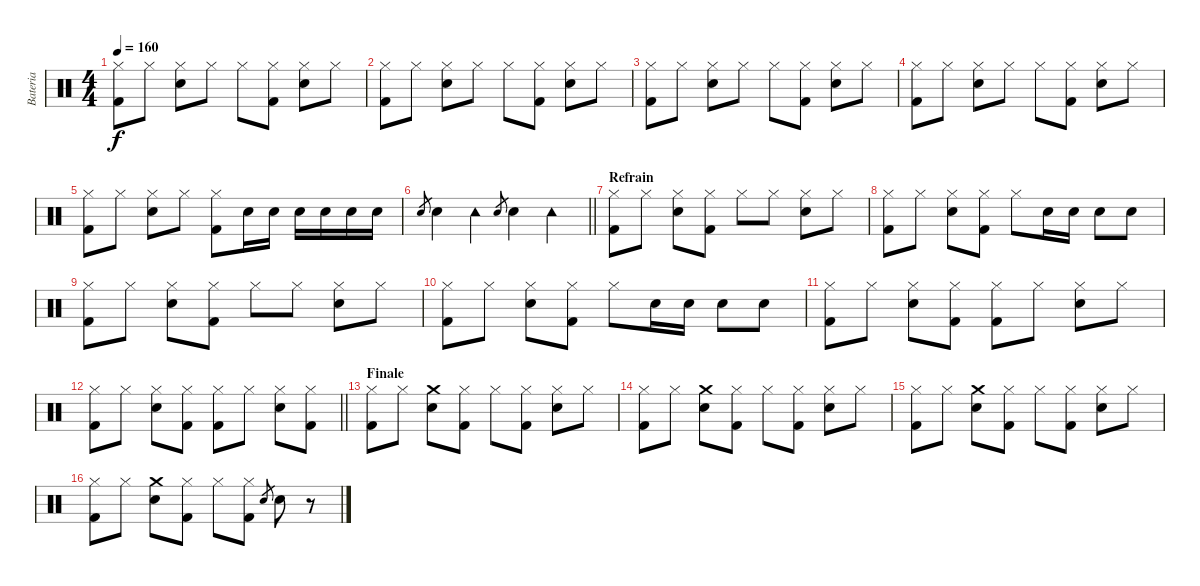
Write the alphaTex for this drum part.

\track ("Bateria" "Bateria") {instrument percussion}
\staff {score}
\articulation defaults
\ts (4 4)
\tempo 160
\clef neutral
\ks c
("Hi-Hat (closed)" "Kick (hit) 2").8{dy f} "Hi-Hat (closed)".8 ("Hi-Hat (closed)" "Electric Snare (hit)").8 "Hi-Hat (closed)".8 "Hi-Hat (closed)".8 ("Hi-Hat (closed)" "Kick (hit) 2").8 ("Hi-Hat (closed)" "Electric Snare (hit)").8 "Hi-Hat (closed)".8 |
("Hi-Hat (closed)" "Kick (hit) 2").8 "Hi-Hat (closed)".8 ("Hi-Hat (closed)" "Electric Snare (hit)").8 "Hi-Hat (closed)".8 "Hi-Hat (closed)".8 ("Hi-Hat (closed)" "Kick (hit) 2").8 ("Hi-Hat (closed)" "Electric Snare (hit)").8 "Hi-Hat (closed)".8 |
("Hi-Hat (closed)" "Kick (hit) 2").8 "Hi-Hat (closed)".8 ("Hi-Hat (closed)" "Electric Snare (hit)").8 "Hi-Hat (closed)".8 "Hi-Hat (closed)".8 ("Hi-Hat (closed)" "Kick (hit) 2").8 ("Hi-Hat (closed)" "Electric Snare (hit)").8 "Hi-Hat (closed)".8 |
("Hi-Hat (closed)" "Kick (hit) 2").8 "Hi-Hat (closed)".8 ("Hi-Hat (closed)" "Electric Snare (hit)").8 "Hi-Hat (closed)".8 "Hi-Hat (closed)".8 ("Hi-Hat (closed)" "Kick (hit) 2").8 ("Hi-Hat (closed)" "Electric Snare (hit)").8 "Hi-Hat (closed)".8 |
("Hi-Hat (closed)" "Kick (hit) 2").8 "Hi-Hat (closed)".8 ("Hi-Hat (closed)" "Electric Snare (hit)").8 "Hi-Hat (closed)".8 ("Hi-Hat (closed)" "Kick (hit) 2").8 "Electric Snare (hit)".16 "Electric Snare (hit)".16 "Electric Snare (hit)".16 "Electric Snare (hit)".16 "Electric Snare (hit)".16 "Electric Snare (hit)".16 |
\barLineRight lightlight "Electric Snare (hit)".8{gr} "Electric Snare (hit)".4 "Tambourine (hit)".4 "Electric Snare (hit)".8{gr} "Electric Snare (hit)".4 "Tambourine (hit)".4
|
\section ("" "Refrain")
("Hi-Hat (closed)" "Kick (hit) 2").8 "Hi-Hat (closed)".8 ("Hi-Hat (closed)" "Electric Snare (hit)").8 ("Hi-Hat (closed)" "Kick (hit) 2").8 "Hi-Hat (closed)".8 "Hi-Hat (closed)".8 ("Hi-Hat (closed)" "Electric Snare (hit)").8 "Hi-Hat (closed)".8 |
("Hi-Hat (closed)" "Kick (hit) 2").8 "Hi-Hat (closed)".8 ("Hi-Hat (closed)" "Electric Snare (hit)").8 ("Hi-Hat (closed)" "Kick (hit) 2").8 "Hi-Hat (closed)".8 "Electric Snare (hit)".16 "Electric Snare (hit)".16 "Electric Snare (hit)".8 "Electric Snare (hit)".8 |
("Hi-Hat (closed)" "Kick (hit) 2").8 "Hi-Hat (closed)".8 ("Hi-Hat (closed)" "Electric Snare (hit)").8 ("Hi-Hat (closed)" "Kick (hit) 2").8 "Hi-Hat (closed)".8 "Hi-Hat (closed)".8 ("Hi-Hat (closed)" "Electric Snare (hit)").8 "Hi-Hat (closed)".8 |
("Hi-Hat (closed)" "Kick (hit) 2").8 "Hi-Hat (closed)".8 ("Hi-Hat (closed)" "Electric Snare (hit)").8 ("Hi-Hat (closed)" "Kick (hit) 2").8 "Hi-Hat (closed)".8 "Electric Snare (hit)".16 "Electric Snare (hit)".16 "Electric Snare (hit)".8 "Electric Snare (hit)".8 |
("Hi-Hat (closed)" "Kick (hit) 2").8 "Hi-Hat (closed)".8 ("Hi-Hat (closed)" "Electric Snare (hit)").8 ("Hi-Hat (closed)" "Kick (hit) 2").8 ("Hi-Hat (closed)" "Kick (hit) 2").8 "Hi-Hat (closed)".8 ("Hi-Hat (closed)" "Electric Snare (hit)").8 "Hi-Hat (closed)".8 |
\barLineRight lightlight
("Hi-Hat (closed)" "Kick (hit) 2").8 "Hi-Hat (closed)".8 ("Hi-Hat (closed)" "Electric Snare (hit)").8 ("Hi-Hat (closed)" "Kick (hit) 2").8 ("Hi-Hat (closed)" "Kick (hit) 2").8 "Hi-Hat (closed)".8 ("Hi-Hat (closed)" "Electric Snare (hit)").8 ("Hi-Hat (closed)" "Kick (hit) 2").8 |
\section ("" "Finale")
("Hi-Hat (closed)" "Kick (hit) 2").8 "Hi-Hat (closed)".8 ("Crash medium (hit)" "Electric Snare (hit)").8 ("Hi-Hat (closed)" "Kick (hit) 2").8 "Hi-Hat (closed)".8 ("Hi-Hat (closed)" "Kick (hit) 2").8 ("Hi-Hat (closed)" "Electric Snare (hit)").8 "Hi-Hat (closed)".8 |
("Hi-Hat (closed)" "Kick (hit) 2").8 "Hi-Hat (closed)".8 ("Crash medium (hit)" "Electric Snare (hit)").8 ("Hi-Hat (closed)" "Kick (hit) 2").8 "Hi-Hat (closed)".8 ("Hi-Hat (closed)" "Kick (hit) 2").8 ("Hi-Hat (closed)" "Electric Snare (hit)").8 "Hi-Hat (closed)".8 |
("Hi-Hat (closed)" "Kick (hit) 2").8 "Hi-Hat (closed)".8 ("Crash medium (hit)" "Electric Snare (hit)").8 ("Hi-Hat (closed)" "Kick (hit) 2").8 "Hi-Hat (closed)".8 ("Hi-Hat (closed)" "Kick (hit) 2").8 ("Hi-Hat (closed)" "Electric Snare (hit)").8 "Hi-Hat (closed)".8 |
("Hi-Hat (closed)" "Kick (hit) 2").8 "Hi-Hat (closed)".8 ("Crash medium (hit)" "Electric Snare (hit)").8 ("Hi-Hat (closed)" "Kick (hit) 2").8 "Hi-Hat (closed)".8 ("Hi-Hat (closed)" "Kick (hit) 2").8 "Electric Snare (hit)".8{gr} "Electric Snare (hit)".8 r.8
